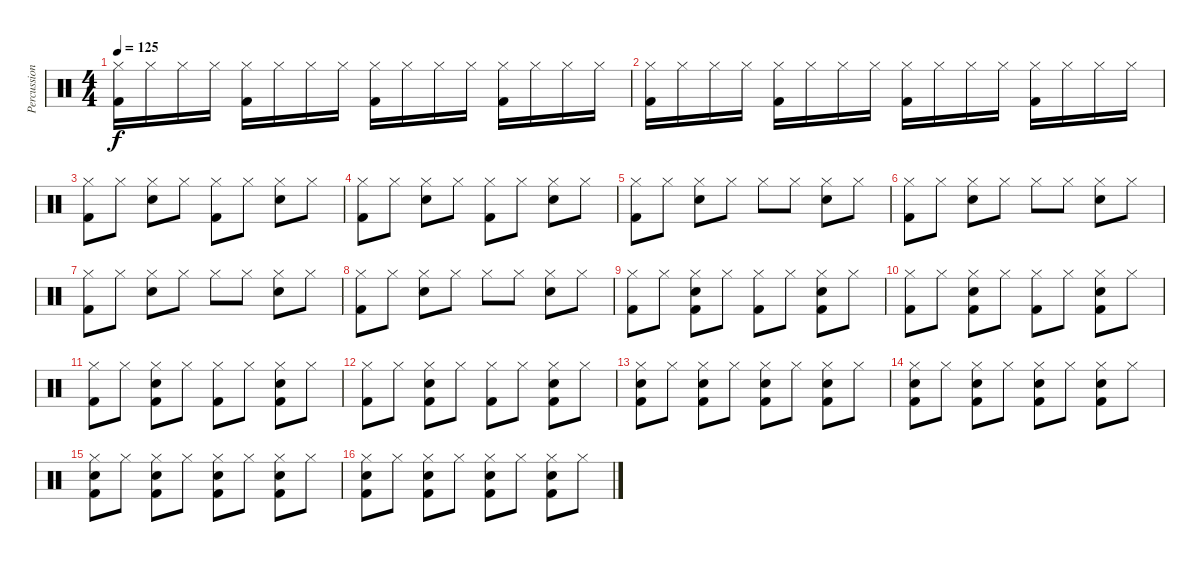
\track ("Percussion" "Percussion") {instrument percussion}
\staff {score}
\articulation defaults
\ts (4 4)
\tempo 125
\clef neutral
\ks c
("Kick (hit) 2" "Hi-Hat (closed)").16{dy f} "Hi-Hat (closed)".16 "Hi-Hat (closed)".16 "Hi-Hat (closed)".16 ("Kick (hit) 2" "Hi-Hat (closed)").16 "Hi-Hat (closed)".16 "Hi-Hat (closed)".16 "Hi-Hat (closed)".16 ("Kick (hit) 2" "Hi-Hat (closed)").16 "Hi-Hat (closed)".16 "Hi-Hat (closed)".16 "Hi-Hat (closed)".16 ("Kick (hit) 2" "Hi-Hat (closed)").16 "Hi-Hat (closed)".16 "Hi-Hat (closed)".16 "Hi-Hat (closed)".16 |
("Kick (hit) 2" "Hi-Hat (closed)").16 "Hi-Hat (closed)".16 "Hi-Hat (closed)".16 "Hi-Hat (closed)".16 ("Kick (hit) 2" "Hi-Hat (closed)").16 "Hi-Hat (closed)".16 "Hi-Hat (closed)".16 "Hi-Hat (closed)".16 ("Kick (hit) 2" "Hi-Hat (closed)").16 "Hi-Hat (closed)".16 "Hi-Hat (closed)".16 "Hi-Hat (closed)".16 ("Kick (hit) 2" "Hi-Hat (closed)").16 "Hi-Hat (closed)".16 "Hi-Hat (closed)".16 "Hi-Hat (closed)".16 |
("Kick (hit) 2" "Hi-Hat (closed)").8 "Hi-Hat (closed)".8 ("Snare (hit) 2" "Hi-Hat (closed)").8 "Hi-Hat (closed)".8 ("Kick (hit) 2" "Hi-Hat (closed)").8 "Hi-Hat (closed)".8 ("Snare (hit) 2" "Hi-Hat (closed)").8 "Hi-Hat (closed)".8 |
("Kick (hit) 2" "Hi-Hat (closed)").8 "Hi-Hat (closed)".8 ("Snare (hit) 2" "Hi-Hat (closed)").8 "Hi-Hat (closed)".8 ("Kick (hit) 2" "Hi-Hat (closed)").8 "Hi-Hat (closed)".8 ("Snare (hit) 2" "Hi-Hat (closed)").8 "Hi-Hat (closed)".8 |
("Kick (hit) 2" "Hi-Hat (closed)").8 "Hi-Hat (closed)".8 ("Snare (hit) 2" "Hi-Hat (closed)").8 "Hi-Hat (closed)".8 "Hi-Hat (closed)".8 "Hi-Hat (closed)".8 ("Snare (hit) 2" "Hi-Hat (closed)").8 "Hi-Hat (closed)".8 |
("Kick (hit) 2" "Hi-Hat (closed)").8 "Hi-Hat (closed)".8 ("Snare (hit) 2" "Hi-Hat (closed)").8 "Hi-Hat (closed)".8 "Hi-Hat (closed)".8 "Hi-Hat (closed)".8 ("Snare (hit) 2" "Hi-Hat (closed)").8 "Hi-Hat (closed)".8 |
("Kick (hit) 2" "Hi-Hat (closed)").8 "Hi-Hat (closed)".8 ("Snare (hit) 2" "Hi-Hat (closed)").8 "Hi-Hat (closed)".8 "Hi-Hat (closed)".8 "Hi-Hat (closed)".8 ("Snare (hit) 2" "Hi-Hat (closed)").8 "Hi-Hat (closed)".8 |
("Kick (hit) 2" "Hi-Hat (closed)").8 "Hi-Hat (closed)".8 ("Snare (hit) 2" "Hi-Hat (closed)").8 "Hi-Hat (closed)".8 "Hi-Hat (closed)".8 "Hi-Hat (closed)".8 ("Snare (hit) 2" "Hi-Hat (closed)").8 "Hi-Hat (closed)".8 |
("Kick (hit) 2" "Hi-Hat (closed)").8 "Hi-Hat (closed)".8 ("Kick (hit) 2" "Snare (hit) 2" "Hi-Hat (closed)").8 "Hi-Hat (closed)".8 ("Kick (hit) 2" "Hi-Hat (closed)").8 "Hi-Hat (closed)".8 ("Kick (hit) 2" "Snare (hit) 2" "Hi-Hat (closed)").8 "Hi-Hat (closed)".8 |
("Kick (hit) 2" "Hi-Hat (closed)").8 "Hi-Hat (closed)".8 ("Kick (hit) 2" "Snare (hit) 2" "Hi-Hat (closed)").8 "Hi-Hat (closed)".8 ("Kick (hit) 2" "Hi-Hat (closed)").8 "Hi-Hat (closed)".8 ("Kick (hit) 2" "Snare (hit) 2" "Hi-Hat (closed)").8 "Hi-Hat (closed)".8 |
("Kick (hit) 2" "Hi-Hat (closed)").8 "Hi-Hat (closed)".8 ("Kick (hit) 2" "Snare (hit) 2" "Hi-Hat (closed)").8 "Hi-Hat (closed)".8 ("Kick (hit) 2" "Hi-Hat (closed)").8 "Hi-Hat (closed)".8 ("Kick (hit) 2" "Snare (hit) 2" "Hi-Hat (closed)").8 "Hi-Hat (closed)".8 |
("Kick (hit) 2" "Hi-Hat (closed)").8 "Hi-Hat (closed)".8 ("Kick (hit) 2" "Snare (hit) 2" "Hi-Hat (closed)").8 "Hi-Hat (closed)".8 ("Kick (hit) 2" "Hi-Hat (closed)").8 "Hi-Hat (closed)".8 ("Kick (hit) 2" "Snare (hit) 2" "Hi-Hat (closed)").8 "Hi-Hat (closed)".8 |
("Kick (hit) 2" "Snare (hit) 2" "Hi-Hat (closed)").8 "Hi-Hat (closed)".8 ("Kick (hit) 2" "Snare (hit) 2" "Hi-Hat (closed)").8 "Hi-Hat (closed)".8 ("Kick (hit) 2" "Snare (hit) 2" "Hi-Hat (closed)").8 "Hi-Hat (closed)".8 ("Kick (hit) 2" "Snare (hit) 2" "Hi-Hat (closed)").8 "Hi-Hat (closed)".8 |
("Kick (hit) 2" "Snare (hit) 2" "Hi-Hat (closed)").8 "Hi-Hat (closed)".8 ("Kick (hit) 2" "Snare (hit) 2" "Hi-Hat (closed)").8 "Hi-Hat (closed)".8 ("Kick (hit) 2" "Snare (hit) 2" "Hi-Hat (closed)").8 "Hi-Hat (closed)".8 ("Kick (hit) 2" "Snare (hit) 2" "Hi-Hat (closed)").8 "Hi-Hat (closed)".8 |
("Kick (hit) 2" "Snare (hit) 2" "Hi-Hat (closed)").8 "Hi-Hat (closed)".8 ("Kick (hit) 2" "Snare (hit) 2" "Hi-Hat (closed)").8 "Hi-Hat (closed)".8 ("Kick (hit) 2" "Snare (hit) 2" "Hi-Hat (closed)").8 "Hi-Hat (closed)".8 ("Kick (hit) 2" "Snare (hit) 2" "Hi-Hat (closed)").8 "Hi-Hat (closed)".8 |
("Kick (hit) 2" "Snare (hit) 2" "Hi-Hat (closed)").8 "Hi-Hat (closed)".8 ("Kick (hit) 2" "Snare (hit) 2" "Hi-Hat (closed)").8 "Hi-Hat (closed)".8 ("Kick (hit) 2" "Snare (hit) 2" "Hi-Hat (closed)").8 "Hi-Hat (closed)".8 ("Kick (hit) 2" "Snare (hit) 2" "Hi-Hat (closed)").8 "Hi-Hat (closed)".8
